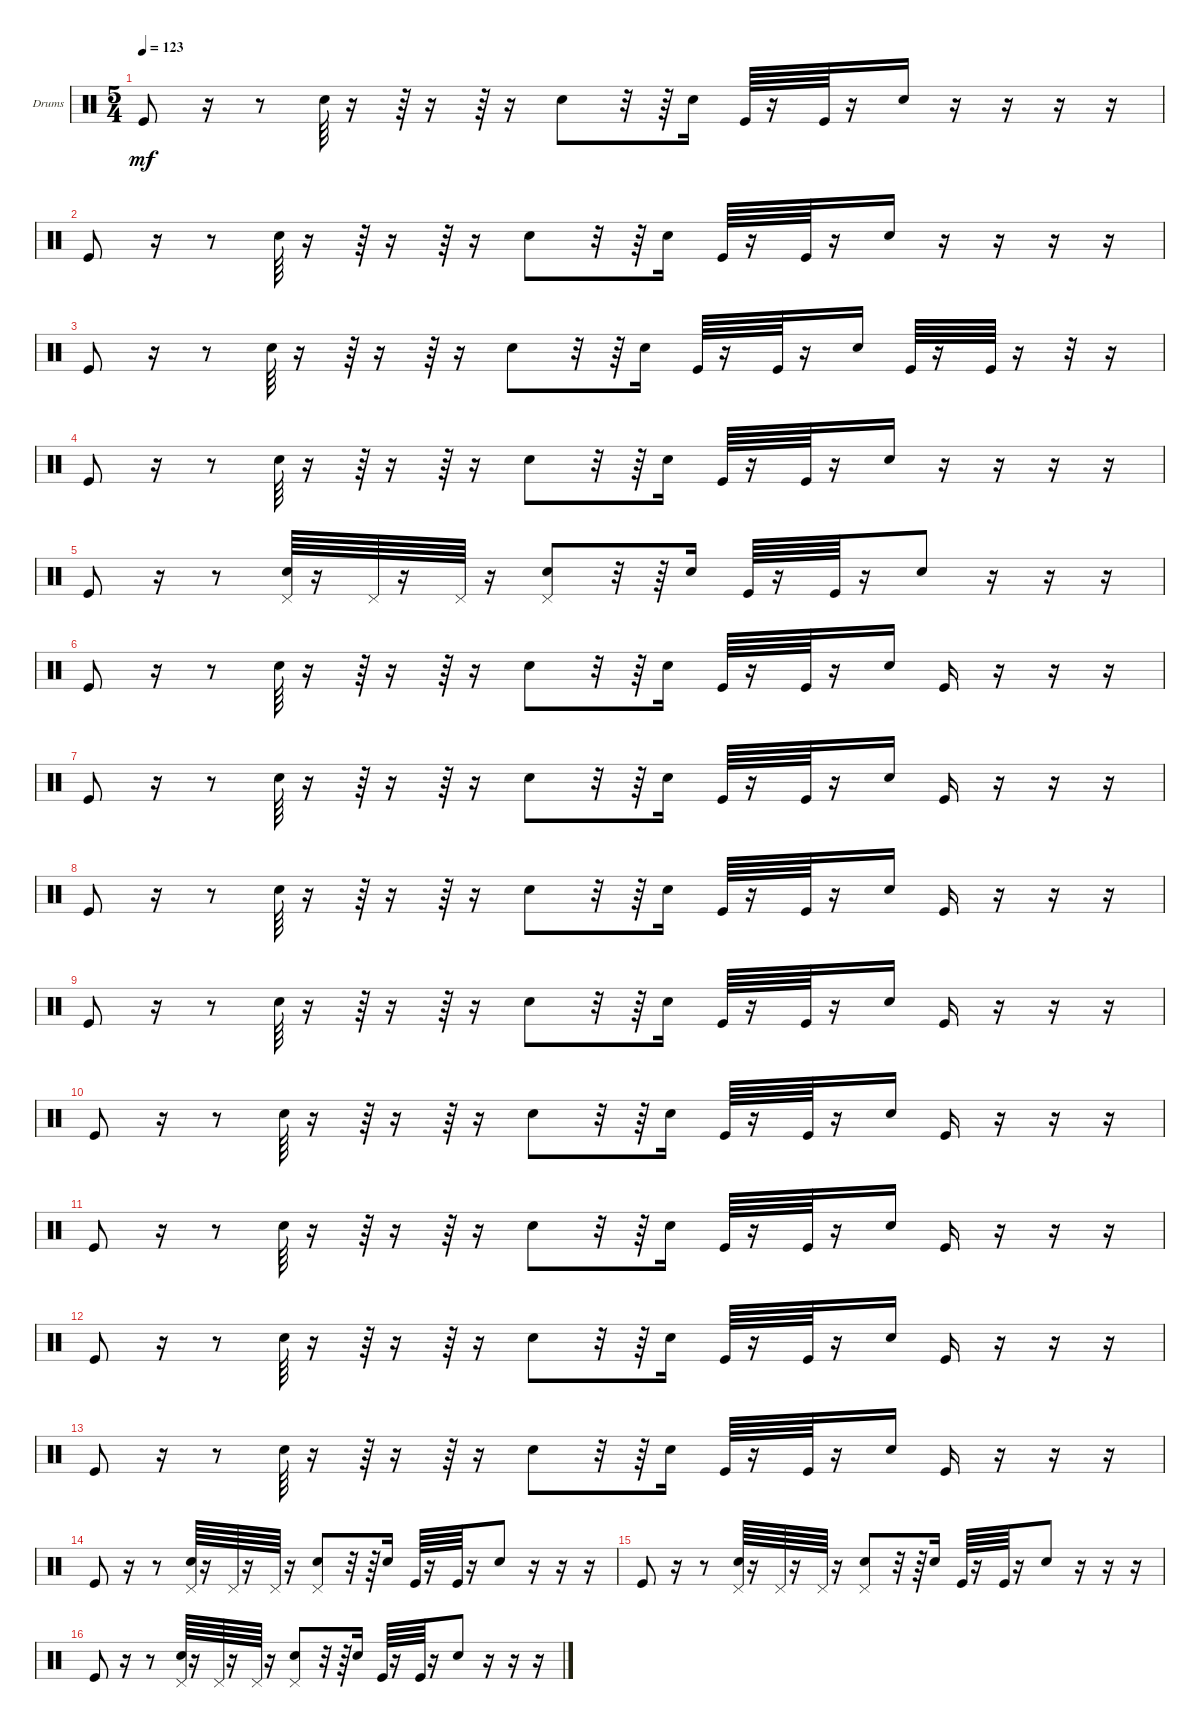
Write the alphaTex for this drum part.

\defaultSystemsLayout 4
\bracketExtendMode groupsimilarinstruments
\firstSystemTrackNameOrientation horizontal
\otherSystemsTrackNameOrientation horizontal
\track ("Drumkit" "Drums") {instrument percussion}
\staff {score}
\articulation defaults
\ts (5 4)
\tempo 123
\clef neutral
\ks c "Kick (hit)".8{dy mf}
r.16 r.8 "Snare (hit) 2".64 r.16 r.64 r.16 r.64 r.16 "Snare (hit) 2".8 r.32 r.64 "Snare (hit) 2".16 "Kick (hit)".64 r.16 "Kick (hit)".64 r.16 "Snare (hit) 2".16 r.16 r.16 r.16 r.16 |
"Kick (hit)".8 r.16 r.8 "Snare (hit) 2".64 r.16 r.64 r.16 r.64 r.16 "Snare (hit) 2".8 r.32 r.64 "Snare (hit) 2".16 "Kick (hit)".64 r.16 "Kick (hit)".64 r.16 "Snare (hit) 2".16 r.16 r.16 r.16 r.16 |
"Kick (hit)".8 r.16 r.8 "Snare (hit) 2".64 r.16 r.64 r.16 r.64 r.16 "Snare (hit) 2".8 r.32 r.64 "Snare (hit) 2".16 "Kick (hit)".64 r.16 "Kick (hit)".64 r.16 "Snare (hit) 2".16 "Kick (hit)".64 r.16 "Kick (hit)".64 r.16 r.32 r.16 |
"Kick (hit)".8 r.16 r.8 "Snare (hit) 2".64 r.16 r.64 r.16 r.64 r.16 "Snare (hit) 2".8 r.32 r.64 "Snare (hit) 2".16 "Kick (hit)".64 r.16 "Kick (hit)".64 r.16 "Snare (hit) 2".16 r.16 r.16 r.16 r.16 |
"Kick (hit)".8 r.16 r.8 ("Snare (hit) 2" "Pedal Hi-Hat (hit)").64 r.16 "Pedal Hi-Hat (hit)".64 r.16 "Pedal Hi-Hat (hit)".64 r.16 ("Snare (hit) 2" "Pedal Hi-Hat (hit)").8 r.32 r.64 "Snare (hit) 2".16 "Kick (hit)".64 r.16 "Kick (hit)".64 r.16 "Snare (hit) 2".8 r.16 r.16 r.16 |
"Kick (hit)".8 r.16 r.8 "Snare (hit) 2".64 r.16 r.64 r.16 r.64 r.16 "Snare (hit) 2".8 r.32 r.64 "Snare (hit) 2".16 "Kick (hit)".64 r.16 "Kick (hit)".64 r.16 "Snare (hit) 2".16 "Kick (hit)".16 r.16 r.16 r.16 |
"Kick (hit)".8 r.16 r.8 "Snare (hit) 2".64 r.16 r.64 r.16 r.64 r.16 "Snare (hit) 2".8 r.32 r.64 "Snare (hit) 2".16 "Kick (hit)".64 r.16 "Kick (hit)".64 r.16 "Snare (hit) 2".16 "Kick (hit)".16 r.16 r.16 r.16 |
"Kick (hit)".8 r.16 r.8 "Snare (hit) 2".64 r.16 r.64 r.16 r.64 r.16 "Snare (hit) 2".8 r.32 r.64 "Snare (hit) 2".16 "Kick (hit)".64 r.16 "Kick (hit)".64 r.16 "Snare (hit) 2".16 "Kick (hit)".16 r.16 r.16 r.16 |
"Kick (hit)".8 r.16 r.8 "Snare (hit) 2".64 r.16 r.64 r.16 r.64 r.16 "Snare (hit) 2".8 r.32 r.64 "Snare (hit) 2".16 "Kick (hit)".64 r.16 "Kick (hit)".64 r.16 "Snare (hit) 2".16 "Kick (hit)".16 r.16 r.16 r.16 |
"Kick (hit)".8 r.16 r.8 "Snare (hit) 2".64 r.16 r.64 r.16 r.64 r.16 "Snare (hit) 2".8 r.32 r.64 "Snare (hit) 2".16 "Kick (hit)".64 r.16 "Kick (hit)".64 r.16 "Snare (hit) 2".16 "Kick (hit)".16 r.16 r.16 r.16 |
"Kick (hit)".8 r.16 r.8 "Snare (hit) 2".64 r.16 r.64 r.16 r.64 r.16 "Snare (hit) 2".8 r.32 r.64 "Snare (hit) 2".16 "Kick (hit)".64 r.16 "Kick (hit)".64 r.16 "Snare (hit) 2".16 "Kick (hit)".16 r.16 r.16 r.16 |
"Kick (hit)".8 r.16 r.8 "Snare (hit) 2".64 r.16 r.64 r.16 r.64 r.16 "Snare (hit) 2".8 r.32 r.64 "Snare (hit) 2".16 "Kick (hit)".64 r.16 "Kick (hit)".64 r.16 "Snare (hit) 2".16 "Kick (hit)".16 r.16 r.16 r.16 |
"Kick (hit)".8 r.16 r.8 "Snare (hit) 2".64 r.16 r.64 r.16 r.64 r.16 "Snare (hit) 2".8 r.32 r.64 "Snare (hit) 2".16 "Kick (hit)".64 r.16 "Kick (hit)".64 r.16 "Snare (hit) 2".16 "Kick (hit)".16 r.16 r.16 r.16 |
"Kick (hit)".8 r.16 r.8 ("Snare (hit) 2" "Pedal Hi-Hat (hit)").64 r.16 "Pedal Hi-Hat (hit)".64 r.16 "Pedal Hi-Hat (hit)".64 r.16 ("Snare (hit) 2" "Pedal Hi-Hat (hit)").8 r.32 r.64 "Snare (hit) 2".16 "Kick (hit)".64 r.16 "Kick (hit)".64 r.16 "Snare (hit) 2".8 r.16 r.16 r.16 |
"Kick (hit)".8 r.16 r.8 ("Snare (hit) 2" "Pedal Hi-Hat (hit)").64 r.16 "Pedal Hi-Hat (hit)".64 r.16 "Pedal Hi-Hat (hit)".64 r.16 ("Snare (hit) 2" "Pedal Hi-Hat (hit)").8 r.32 r.64 "Snare (hit) 2".16 "Kick (hit)".64 r.16 "Kick (hit)".64 r.16 "Snare (hit) 2".8 r.16 r.16 r.16 |
"Kick (hit)".8 r.16 r.8 ("Snare (hit) 2" "Pedal Hi-Hat (hit)").64 r.16 "Pedal Hi-Hat (hit)".64 r.16 "Pedal Hi-Hat (hit)".64 r.16 ("Snare (hit) 2" "Pedal Hi-Hat (hit)").8 r.32 r.64 "Snare (hit) 2".16 "Kick (hit)".64 r.16 "Kick (hit)".64 r.16 "Snare (hit) 2".8 r.16 r.16 r.16
